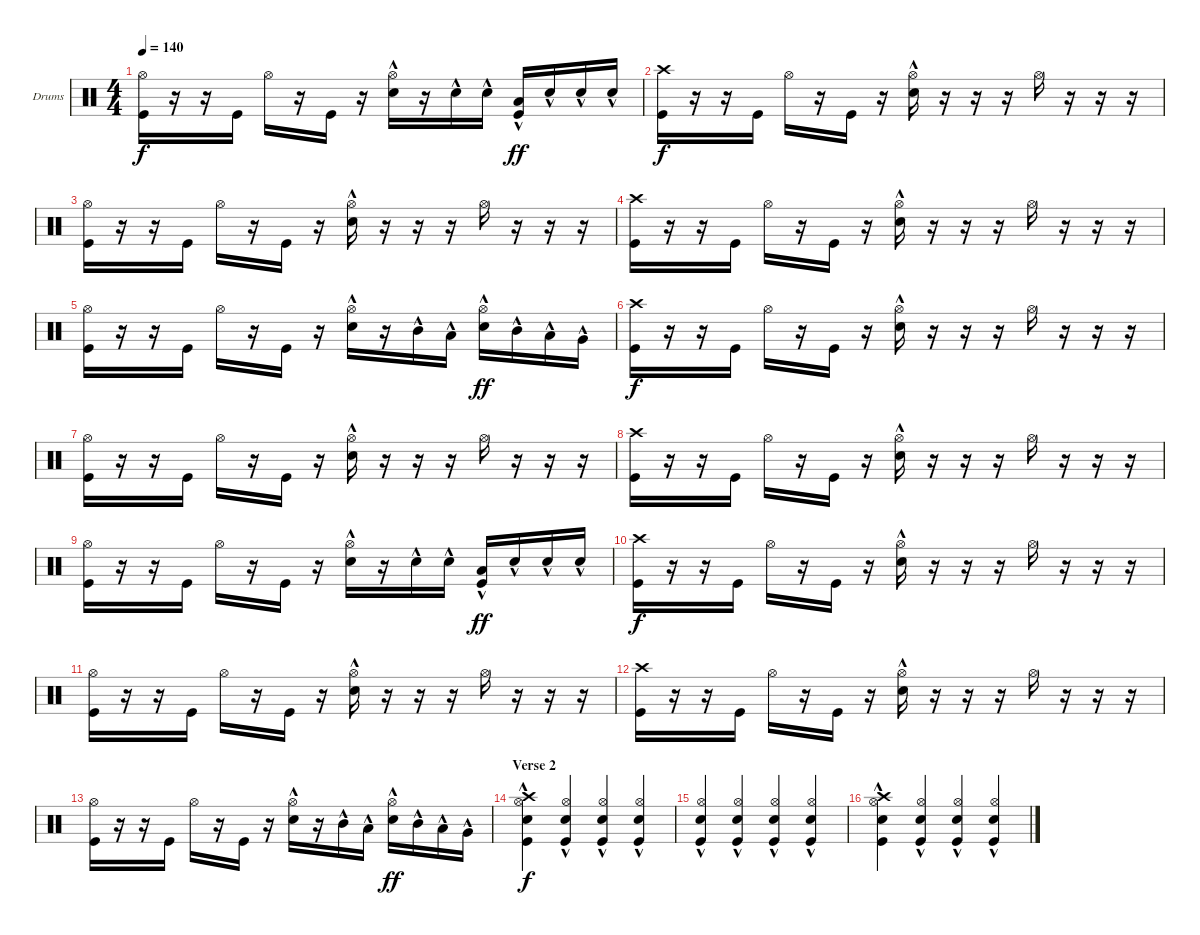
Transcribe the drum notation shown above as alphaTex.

\defaultSystemsLayout 4
\bracketExtendMode groupsimilarinstruments
\firstSystemTrackNameOrientation horizontal
\otherSystemsTrackNameOrientation horizontal
\track ("Drumkit - Paul" "Drums") {instrument percussion}
\staff {score}
\articulation defaults
\ts (4 4)
\tempo 140
\clef neutral
\ks c
("Kick (hit)" "Hi-Hat (open)").16{dy f} r.16 r.16 "Kick (hit)".16 "Hi-Hat (open)".16 r.16 "Kick (hit)".16 r.16 ("Snare (hit) 2"{hac} "Hi-Hat (open)").16 r.16 "Snare (hit) 2"{hac}.16 "Snare (hit) 2"{hac}.16 ("Kick (hit)"{hac} "Low Tom (hit)"{hac}).16{dy ff} "Snare (hit) 2"{hac}.16 "Snare (hit) 2"{hac}.16 "Snare (hit) 2"{hac}.16 |
("Crash high (hit)" "Kick (hit)").16{dy f} r.16 r.16 "Kick (hit)".16 "Hi-Hat (open)".16 r.16 "Kick (hit)".16 r.16 ("Snare (hit) 2"{hac} "Hi-Hat (open)").16 r.16 r.16 r.16 "Hi-Hat (open)".16 r.16 r.16 r.16 |
("Kick (hit)" "Hi-Hat (open)").16 r.16 r.16 "Kick (hit)".16 "Hi-Hat (open)".16 r.16 "Kick (hit)".16 r.16 ("Snare (hit) 2"{hac} "Hi-Hat (open)").16 r.16 r.16 r.16 "Hi-Hat (open)".16 r.16 r.16 r.16 |
("Crash high (hit)" "Kick (hit)").16 r.16 r.16 "Kick (hit)".16 "Hi-Hat (open)".16 r.16 "Kick (hit)".16 r.16 ("Snare (hit) 2"{hac} "Hi-Hat (open)").16 r.16 r.16 r.16 "Hi-Hat (open)".16 r.16 r.16 r.16 |
("Kick (hit)" "Hi-Hat (open)").16 r.16 r.16 "Kick (hit)".16 "Hi-Hat (open)".16 r.16 "Kick (hit)".16 r.16 ("Snare (hit) 2"{hac} "Hi-Hat (open)").16 r.16 "Mid Tom (hit)"{hac}.16 "Low Tom (hit)"{hac}.16 ("Snare (hit) 2"{hac} "Hi-Hat (open)").16{dy ff} "Mid Tom (hit)"{hac}.16 "Low Tom (hit)"{hac}.16 "Very Low Tom (hit)"{hac}.16 |
("Crash high (hit)" "Kick (hit)").16{dy f} r.16 r.16 "Kick (hit)".16 "Hi-Hat (open)".16 r.16 "Kick (hit)".16 r.16 ("Snare (hit) 2"{hac} "Hi-Hat (open)").16 r.16 r.16 r.16 "Hi-Hat (open)".16 r.16 r.16 r.16 |
("Kick (hit)" "Hi-Hat (open)").16 r.16 r.16 "Kick (hit)".16 "Hi-Hat (open)".16 r.16 "Kick (hit)".16 r.16 ("Snare (hit) 2"{hac} "Hi-Hat (open)").16 r.16 r.16 r.16 "Hi-Hat (open)".16 r.16 r.16 r.16 |
("Crash high (hit)" "Kick (hit)").16 r.16 r.16 "Kick (hit)".16 "Hi-Hat (open)".16 r.16 "Kick (hit)".16 r.16 ("Snare (hit) 2"{hac} "Hi-Hat (open)").16 r.16 r.16 r.16 "Hi-Hat (open)".16 r.16 r.16 r.16 |
("Kick (hit)" "Hi-Hat (open)").16 r.16 r.16 "Kick (hit)".16 "Hi-Hat (open)".16 r.16 "Kick (hit)".16 r.16 ("Snare (hit) 2"{hac} "Hi-Hat (open)").16 r.16 "Snare (hit) 2"{hac}.16 "Snare (hit) 2"{hac}.16 ("Kick (hit)"{hac} "Low Tom (hit)"{hac}).16{dy ff} "Snare (hit) 2"{hac}.16 "Snare (hit) 2"{hac}.16 "Snare (hit) 2"{hac}.16 |
("Crash high (hit)" "Kick (hit)").16{dy f} r.16 r.16 "Kick (hit)".16 "Hi-Hat (open)".16 r.16 "Kick (hit)".16 r.16 ("Snare (hit) 2"{hac} "Hi-Hat (open)").16 r.16 r.16 r.16 "Hi-Hat (open)".16 r.16 r.16 r.16 |
("Kick (hit)" "Hi-Hat (open)").16 r.16 r.16 "Kick (hit)".16 "Hi-Hat (open)".16 r.16 "Kick (hit)".16 r.16 ("Snare (hit) 2"{hac} "Hi-Hat (open)").16 r.16 r.16 r.16 "Hi-Hat (open)".16 r.16 r.16 r.16 |
("Crash high (hit)" "Kick (hit)").16 r.16 r.16 "Kick (hit)".16 "Hi-Hat (open)".16 r.16 "Kick (hit)".16 r.16 ("Snare (hit) 2"{hac} "Hi-Hat (open)").16 r.16 r.16 r.16 "Hi-Hat (open)".16 r.16 r.16 r.16 |
("Kick (hit)" "Hi-Hat (open)").16 r.16 r.16 "Kick (hit)".16 "Hi-Hat (open)".16 r.16 "Kick (hit)".16 r.16 ("Snare (hit) 2"{hac} "Hi-Hat (open)").16 r.16 "Mid Tom (hit)"{hac}.16 "Low Tom (hit)"{hac}.16 ("Snare (hit) 2"{hac} "Hi-Hat (open)").16{dy ff} "Mid Tom (hit)"{hac}.16 "Low Tom (hit)"{hac}.16 "Very Low Tom (hit)"{hac}.16 |
\section ("" "Verse 2")
("Snare (hit) 2"{hac} "Hi-Hat (open)" "Crash high (hit)" "Kick (hit)").4{dy f} ("Hi-Hat (open)" "Snare (hit) 2"{hac} "Kick (hit)").4 ("Hi-Hat (open)" "Snare (hit) 2"{hac} "Kick (hit)").4 ("Hi-Hat (open)" "Snare (hit) 2"{hac} "Kick (hit)").4 |
("Snare (hit) 2"{hac} "Hi-Hat (open)" "Kick (hit)").4 ("Hi-Hat (open)" "Snare (hit) 2"{hac} "Kick (hit)").4 ("Hi-Hat (open)" "Snare (hit) 2"{hac} "Kick (hit)").4 ("Hi-Hat (open)" "Snare (hit) 2"{hac} "Kick (hit)").4 |
("Snare (hit) 2"{hac} "Hi-Hat (open)" "Crash high (hit)" "Kick (hit)").4 ("Hi-Hat (open)" "Snare (hit) 2"{hac} "Kick (hit)").4 ("Hi-Hat (open)" "Snare (hit) 2"{hac} "Kick (hit)").4 ("Hi-Hat (open)" "Snare (hit) 2"{hac} "Kick (hit)").4
